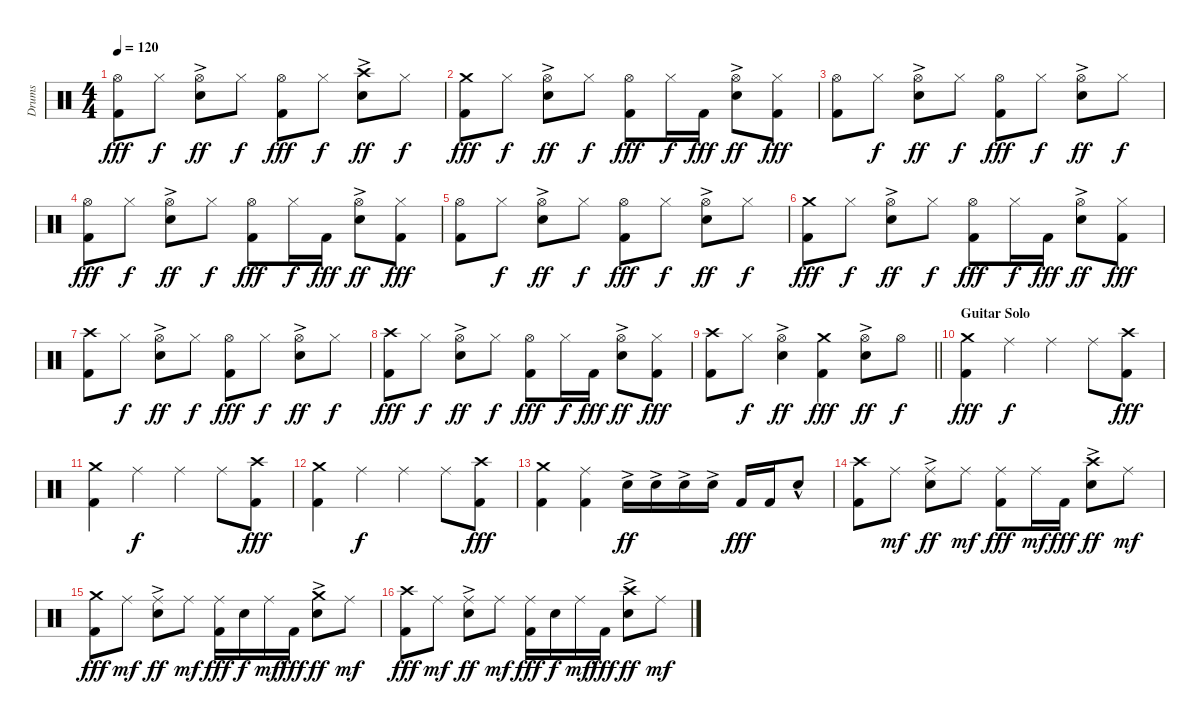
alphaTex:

\track ("Drums" "Drums") {instrument percussion}
\staff {score}
\articulation defaults
\ts (4 4)
\tempo 120
\clef neutral
\ks c
("Hi-Hat (open)" "Kick (hit) 2").8{dy fff} "Hi-Hat (closed)".8{dy f} ("Hi-Hat (open)" "Snare (hit) 2"{ac}).8{dy ff} "Hi-Hat (closed)".8{dy f} ("Hi-Hat (open)" "Kick (hit) 2").8{dy fff} "Hi-Hat (closed)".8{dy f} ("Crash high (hit)" "Snare (hit) 2"{ac}).8{dy ff} "Hi-Hat (closed)".8{dy f} |
("Crash medium (hit)" "Kick (hit) 2").8{dy fff} "Hi-Hat (closed)".8{dy f} ("Hi-Hat (open)" "Snare (hit) 2"{ac}).8{dy ff} "Hi-Hat (closed)".8{dy f} ("Hi-Hat (open)" "Kick (hit) 2").8{dy fff} "Hi-Hat (closed)".16{dy f} "Kick (hit) 2".16{dy fff} ("Hi-Hat (open)" "Snare (hit) 2"{ac}).8{dy ff} ("Hi-Hat (closed)" "Kick (hit) 2").8{dy fff} |
("Hi-Hat (open)" "Kick (hit) 2").8 "Hi-Hat (closed)".8{dy f} ("Hi-Hat (open)" "Snare (hit) 2"{ac}).8{dy ff} "Hi-Hat (closed)".8{dy f} ("Hi-Hat (open)" "Kick (hit) 2").8{dy fff} "Hi-Hat (closed)".8{dy f} ("Hi-Hat (open)" "Snare (hit) 2"{ac}).8{dy ff} "Hi-Hat (closed)".8{dy f} |
("Hi-Hat (open)" "Kick (hit) 2").8{dy fff} "Hi-Hat (closed)".8{dy f} ("Hi-Hat (open)" "Snare (hit) 2"{ac}).8{dy ff} "Hi-Hat (closed)".8{dy f} ("Hi-Hat (open)" "Kick (hit) 2").8{dy fff} "Hi-Hat (closed)".16{dy f} "Kick (hit) 2".16{dy fff} ("Hi-Hat (open)" "Snare (hit) 2"{ac}).8{dy ff} ("Hi-Hat (closed)" "Kick (hit) 2").8{dy fff} |
("Hi-Hat (open)" "Kick (hit) 2").8 "Hi-Hat (closed)".8{dy f} ("Hi-Hat (open)" "Snare (hit) 2"{ac}).8{dy ff} "Hi-Hat (closed)".8{dy f} ("Hi-Hat (open)" "Kick (hit) 2").8{dy fff} "Hi-Hat (closed)".8{dy f} ("Hi-Hat (open)" "Snare (hit) 2"{ac}).8{dy ff} "Hi-Hat (closed)".8{dy f} |
("Crash medium (hit)" "Kick (hit) 2").8{dy fff} "Hi-Hat (closed)".8{dy f} ("Hi-Hat (open)" "Snare (hit) 2"{ac}).8{dy ff} "Hi-Hat (closed)".8{dy f} ("Hi-Hat (open)" "Kick (hit) 2").8{dy fff} "Hi-Hat (closed)".16{dy f} "Kick (hit) 2".16{dy fff} ("Hi-Hat (open)" "Snare (hit) 2"{ac}).8{dy ff} ("Hi-Hat (closed)" "Kick (hit) 2").8{dy fff} |
("Crash high (hit)" "Kick (hit) 2").8 "Hi-Hat (closed)".8{dy f} ("Hi-Hat (open)" "Snare (hit) 2"{ac}).8{dy ff} "Hi-Hat (closed)".8{dy f} ("Hi-Hat (open)" "Kick (hit) 2").8{dy fff} "Hi-Hat (closed)".8{dy f} ("Hi-Hat (open)" "Snare (hit) 2"{ac}).8{dy ff} "Hi-Hat (closed)".8{dy f} |
("Crash high (hit)" "Kick (hit) 2").8{dy fff} "Hi-Hat (closed)".8{dy f} ("Hi-Hat (open)" "Snare (hit) 2"{ac}).8{dy ff} "Hi-Hat (closed)".8{dy f} ("Hi-Hat (open)" "Kick (hit) 2").8{dy fff} "Hi-Hat (closed)".16{dy f} "Kick (hit) 2".16{dy fff} ("Hi-Hat (open)" "Snare (hit) 2"{ac}).8{dy ff} ("Hi-Hat (closed)" "Kick (hit) 2").8{dy fff} |
\barLineRight lightlight
("Crash high (hit)" "Kick (hit) 2").8 "Hi-Hat (closed)".8{dy f} ("Hi-Hat (open)" "Snare (hit) 2"{ac}).4{dy ff} ("Crash medium (hit)" "Kick (hit) 2").4{dy fff} ("Hi-Hat (open)" "Snare (hit) 2"{ac}).8{dy ff} "Hi-Hat (open)".8{dy f} |
\section ("" "Guitar Solo")
("Crash medium (hit)" "Kick (hit) 2").4{dy fff} "Ride (middle)".4{dy f} "Ride (middle)".4 "Ride (middle)".8 ("Crash high (hit)" "Kick (hit) 2").8{dy fff} |
("Crash medium (hit)" "Kick (hit) 2").4 "Ride (middle)".4{dy f} "Ride (middle)".4 "Ride (middle)".8 ("Crash high (hit)" "Kick (hit) 2").8{dy fff} |
("Crash medium (hit)" "Kick (hit) 2").4 "Ride (middle)".4{dy f} "Ride (middle)".4 "Ride (middle)".8 ("Crash high (hit)" "Kick (hit) 2").8{dy fff} |
("Crash medium (hit)" "Kick (hit) 2").4 ("Ride (middle)" "Kick (hit) 2").4 "Snare (hit) 2"{ac}.16{dy ff} "Snare (hit) 2"{ac}.16 "Snare (hit) 2"{ac}.16 "Snare (hit) 2"{ac}.16 "Kick (hit) 2".16{dy fff} "Kick (hit) 2".16 "Snare (hit) 2"{hac}.8 |
("Crash high (hit)" "Kick (hit) 2").8 "Ride (middle)".8{dy mf} ("Ride (middle)" "Snare (hit) 2"{ac}).8{dy ff} "Ride (middle)".8{dy mf} ("Ride (middle)" "Kick (hit) 2").8{dy fff} "Ride (middle)".16{dy mf} "Kick (hit) 2".16{dy fff} ("Crash high (hit)" "Snare (hit) 2"{ac}).8{dy ff} "Ride (middle)".8{dy mf} |
("Crash medium (hit)" "Kick (hit) 2").8{dy fff} "Ride (middle)".8{dy mf} ("Ride (middle)" "Snare (hit) 2"{ac}).8{dy ff} "Ride (middle)".8{dy mf} ("Ride (middle)" "Kick (hit) 2").16{dy fff} "Snare (hit) 2".16{dy f} "Ride (middle)".16{dy mf} "Kick (hit) 2".16{dy fff} ("Crash medium (hit)" "Snare (hit) 2"{ac}).8{dy ff} "Ride (middle)".8{dy mf} |
("Crash high (hit)" "Kick (hit) 2").8{dy fff} "Ride (middle)".8{dy mf} ("Ride (middle)" "Snare (hit) 2"{ac}).8{dy ff} "Ride (middle)".8{dy mf} ("Ride (middle)" "Kick (hit) 2").16{dy fff} "Snare (hit) 2".16{dy f} "Ride (middle)".16{dy mf} "Kick (hit) 2".16{dy fff} ("Crash high (hit)" "Snare (hit) 2"{ac}).8{dy ff} "Ride (middle)".8{dy mf}
